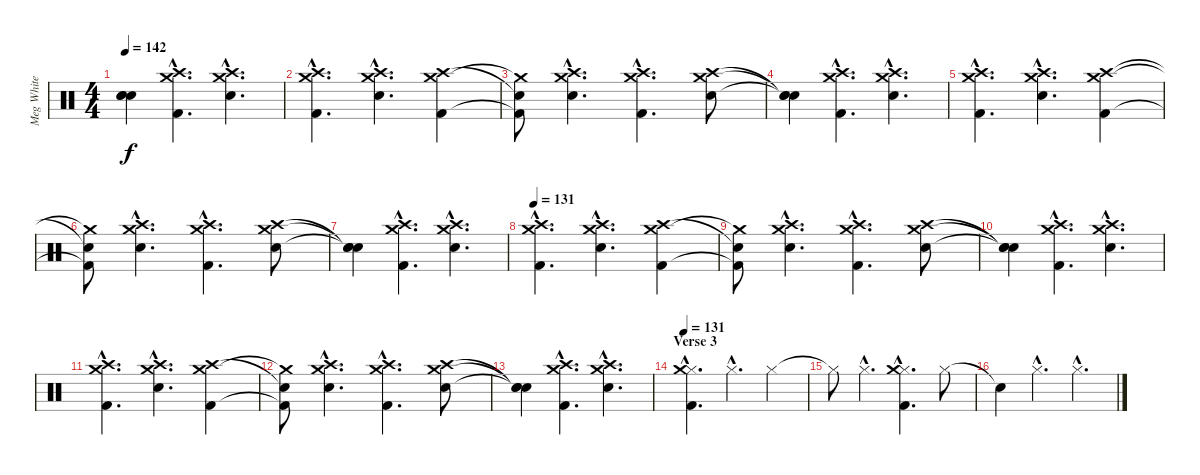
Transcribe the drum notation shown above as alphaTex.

\track ("Meg White" "Meg White") {instrument percussion}
\staff {score}
\articulation defaults
\ts (4 4)
\tempo 142
\clef neutral
\ks c
("Snare (hit)"{t} "Snare (hit)"{t} "Snare (hit)"{t}).4{dy f} ("Kick (hit) 2"{hac} "Crash high (hit)"{hac} "Crash medium (hit)"{hac}).4{d} ("Electric Snare (hit)"{hac} "Crash high (hit)"{hac} "Crash medium (hit)"{hac}).4{d} |
("Kick (hit) 2"{hac} "Crash high (hit)"{hac} "Crash medium (hit)"{hac}).4{d} ("Electric Snare (hit)"{hac} "Crash high (hit)"{hac} "Crash medium (hit)"{hac}).4{d} ("Kick (hit) 2" "Crash high (hit)" "Crash medium (hit)").4 |
("Kick (hit) 2"{t} "Snare (hit)"{t} "Crash medium (hit)"{t}).8 ("Electric Snare (hit)"{hac} "Crash high (hit)"{hac} "Crash medium (hit)"{hac}).4{d} ("Kick (hit) 2"{hac} "Crash high (hit)"{hac} "Crash medium (hit)"{hac}).4{d} ("Electric Snare (hit)" "Crash high (hit)" "Crash medium (hit)").8 |
("Snare (hit)"{t} "Snare (hit)"{t} "Snare (hit)"{t}).4 ("Kick (hit) 2"{hac} "Crash high (hit)"{hac} "Crash medium (hit)"{hac}).4{d} ("Electric Snare (hit)"{hac} "Crash high (hit)"{hac} "Crash medium (hit)"{hac}).4{d} |
("Kick (hit) 2"{hac} "Crash high (hit)"{hac} "Crash medium (hit)"{hac}).4{d} ("Electric Snare (hit)"{hac} "Crash high (hit)"{hac} "Crash medium (hit)"{hac}).4{d} ("Kick (hit) 2" "Crash high (hit)" "Crash medium (hit)").4 |
("Kick (hit) 2"{t} "Snare (hit)"{t} "Crash medium (hit)"{t}).8 ("Electric Snare (hit)"{hac} "Crash high (hit)"{hac} "Crash medium (hit)"{hac}).4{d} ("Kick (hit) 2"{hac} "Crash high (hit)"{hac} "Crash medium (hit)"{hac}).4{d} ("Electric Snare (hit)" "Crash high (hit)" "Crash medium (hit)").8 |
("Snare (hit)"{t} "Snare (hit)"{t} "Snare (hit)"{t}).4 ("Kick (hit) 2"{hac} "Crash high (hit)"{hac} "Crash medium (hit)"{hac}).4{d} ("Electric Snare (hit)"{hac} "Crash high (hit)"{hac} "Crash medium (hit)"{hac}).4{d} |
\tempo 131
("Kick (hit) 2"{hac} "Crash high (hit)"{hac} "Crash medium (hit)"{hac}).4{d} ("Electric Snare (hit)"{hac} "Crash high (hit)"{hac} "Crash medium (hit)"{hac}).4{d} ("Kick (hit) 2" "Crash high (hit)" "Crash medium (hit)").4 |
("Kick (hit) 2"{t} "Snare (hit)"{t} "Crash medium (hit)"{t}).8 ("Electric Snare (hit)"{hac} "Crash high (hit)"{hac} "Crash medium (hit)"{hac}).4{d} ("Kick (hit) 2"{hac} "Crash high (hit)"{hac} "Crash medium (hit)"{hac}).4{d} ("Electric Snare (hit)" "Crash high (hit)" "Crash medium (hit)").8 |
("Snare (hit)"{t} "Snare (hit)"{t} "Snare (hit)"{t}).4 ("Kick (hit) 2"{hac} "Crash high (hit)"{hac} "Crash medium (hit)"{hac}).4{d} ("Electric Snare (hit)"{hac} "Crash high (hit)"{hac} "Crash medium (hit)"{hac}).4{d} |
("Kick (hit) 2"{hac} "Crash high (hit)"{hac} "Crash medium (hit)"{hac}).4{d} ("Electric Snare (hit)"{hac} "Crash high (hit)"{hac} "Crash medium (hit)"{hac}).4{d} ("Kick (hit) 2" "Crash high (hit)" "Crash medium (hit)").4 |
("Kick (hit) 2"{t} "Snare (hit)"{t} "Crash medium (hit)"{t}).8 ("Electric Snare (hit)"{hac} "Crash high (hit)"{hac} "Crash medium (hit)"{hac}).4{d} ("Kick (hit) 2"{hac} "Crash high (hit)"{hac} "Crash medium (hit)"{hac}).4{d} ("Electric Snare (hit)" "Crash high (hit)" "Crash medium (hit)").8 |
("Snare (hit)"{t} "Snare (hit)"{t} "Snare (hit)"{t}).4 ("Kick (hit) 2"{hac} "Crash high (hit)"{hac} "Crash medium (hit)"{hac}).4{d} ("Electric Snare (hit)"{hac} "Crash high (hit)"{hac} "Crash medium (hit)"{hac}).4{d} |
\section ("" "Verse 3")
\tempo 131
("Kick (hit) 2"{hac} "Hi-Hat (closed)"{hac} "Crash medium (hit)"{hac}).4{d} "Hi-Hat (closed)"{hac}.4{d} "Hi-Hat (closed)".4 |
"Hi-Hat (closed)"{t}.8 "Hi-Hat (closed)"{hac}.4{d} ("Kick (hit) 2"{hac} "Hi-Hat (closed)"{hac} "Crash medium (hit)"{hac}).4{d} "Hi-Hat (closed)".8 |
"Snare (hit)"{t}.4 "Hi-Hat (closed)"{hac}.4{d} "Hi-Hat (closed)"{hac}.4{d}
